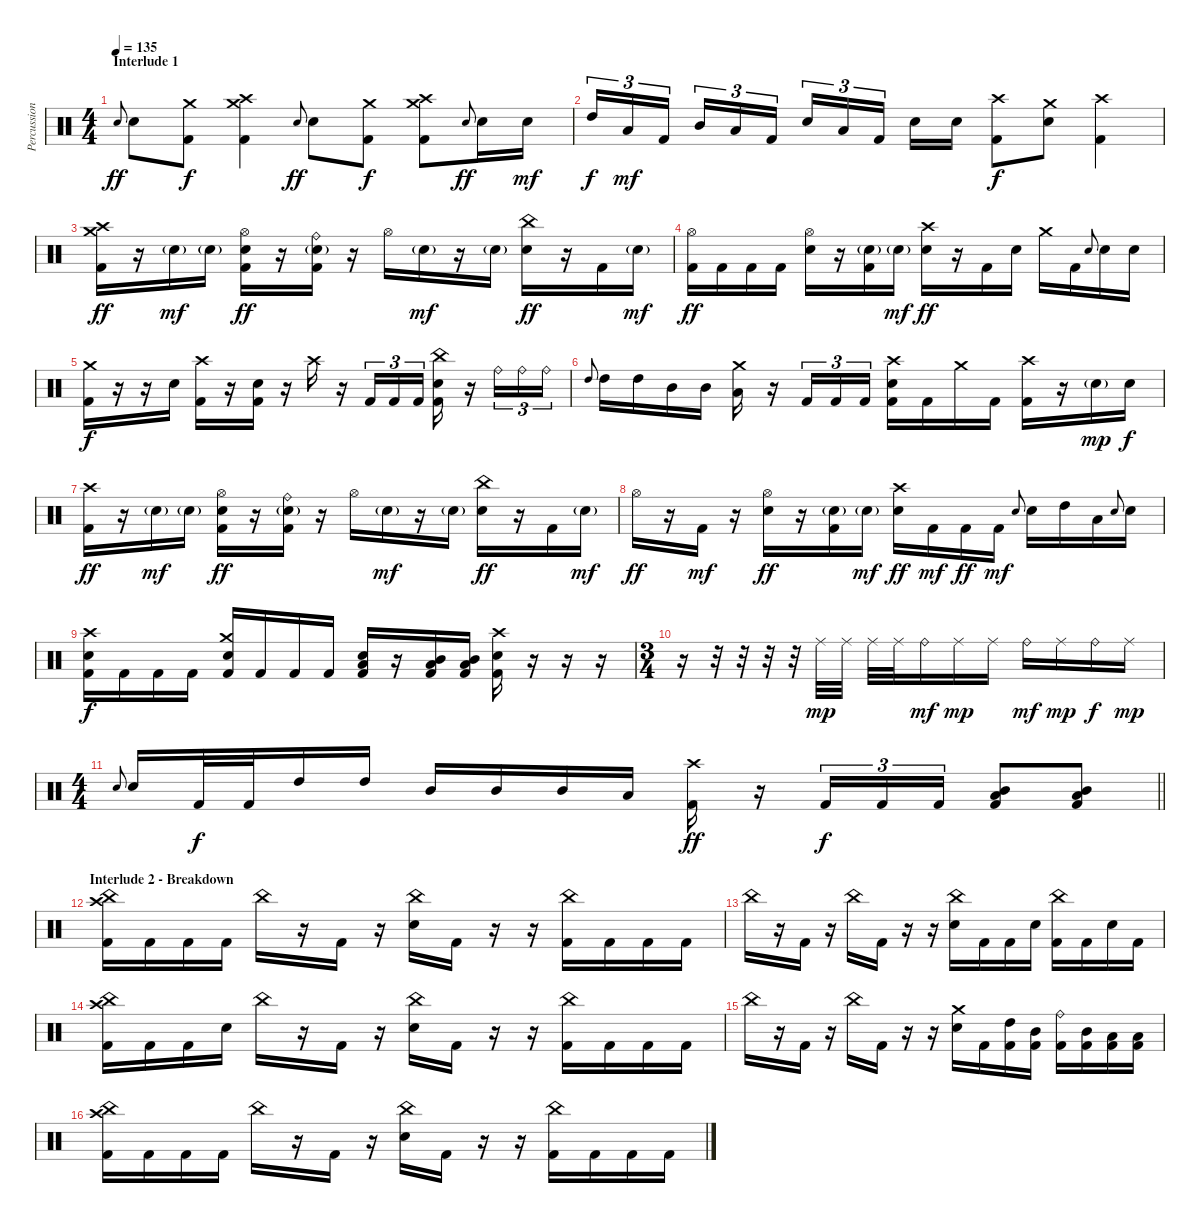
\track ("Percussion" "Percussion") {instrument percussion}
\staff {score}
\articulation defaults
\ts (4 4)
\section ("" "Interlude 1")
\tempo 135
\clef neutral
\ks c "Electric Snare (hit)".8{gr onbeat dy ff} "Electric Snare (hit)".8
("Crash medium (hit)" "Kick (hit) 2").8{dy f} ("Crash high (hit)" "Crash medium (hit)" "Kick (hit) 2").4 "Electric Snare (hit)".8{gr onbeat dy ff} "Electric Snare (hit)".8 ("Crash medium (hit)" "Kick (hit) 2").8{dy f} ("Crash high (hit)" "Crash medium (hit)" "Kick (hit) 2").8 "Electric Snare (hit)".8{gr onbeat dy ff} "Electric Snare (hit)".16 "Electric Snare (hit)".16{dy mf} |
"High Tom (hit)".16{tu (3 2) dy f} "Low Tom (hit)".16{tu (3 2) dy mf} "Kick (hit) 2".16{tu (3 2) beam splitsecondary} "Mid Tom (hit)".16{tu (3 2)} "Low Tom (hit)".16{tu (3 2)} "Kick (hit) 2".16{tu (3 2)} "Electric Snare (hit)".16{tu (3 2)} "Low Tom (hit)".16{tu (3 2)} "Kick (hit) 2".16{tu (3 2) beam splitsecondary} "Electric Snare (hit)".16 "Electric Snare (hit)".16 ("Crash high (hit)" "Kick (hit) 2").8{dy f} ("Crash medium (hit)" "Electric Snare (hit)").8 ("Crash high (hit)" "Kick (hit) 2").4 |
("Crash high (hit)" "Crash medium (hit)" "Kick (hit) 2").16{dy ff} r.16 "Electric Snare (hit)"{g}.16{dy mf} "Electric Snare (hit)"{g}.16 ("Hi-Hat (open)" "Electric Snare (hit)" "Kick (hit) 2").16{dy ff} r.16 ("Ride (bell)" "Electric Snare (hit)"{g} "Kick (hit) 2").16 r.16 "Hi-Hat (open)".16 "Electric Snare (hit)"{g}.16{dy mf} r.16 "Electric Snare (hit)"{g}.16 ("China (hit)" "Electric Snare (hit)").16{dy ff} r.16 "Kick (hit) 2".16 "Electric Snare (hit)"{g}.16{dy mf} |
("Hi-Hat (open)" "Kick (hit) 2").16{dy ff} "Kick (hit) 2".16 "Kick (hit) 2".16 "Kick (hit) 2".16 ("Hi-Hat (open)" "Electric Snare (hit)").16 r.16 ("Electric Snare (hit)"{g} "Kick (hit) 2").16 "Electric Snare (hit)"{g}.16{dy mf} ("Crash high (hit)" "Electric Snare (hit)").16{dy ff} r.16 "Kick (hit) 2".16 "Electric Snare (hit)".16 "Crash medium (hit)".16 "Kick (hit) 2".16 "Electric Snare (hit)".8{gr onbeat} "Electric Snare (hit)".16 "Electric Snare (hit)".16 |
("Crash medium (hit)" "Kick (hit) 2").16{dy f} r.16 r.16 "Electric Snare (hit)".16 ("Crash high (hit)" "Kick (hit) 2").16 r.16 ("Electric Snare (hit)" "Kick (hit) 2").16 r.16 "Crash high (hit)".16 r.16 "Kick (hit) 2".16{tu (3 2)} "Kick (hit) 2".16{tu (3 2)} "Kick (hit) 2".16{tu (3 2)} ("China (hit)" "Electric Snare (hit)" "Kick (hit) 2").16 r.16 "Ride (bell)".16{tu (3 2)} "Ride (bell)".16{tu (3 2)} "Ride (bell)".16{tu (3 2)} |
"High Tom (hit)".8{gr onbeat} "High Tom (hit)".16 "High Tom (hit)".16 "Mid Tom (hit)".16 "Mid Tom (hit)".16 ("Crash medium (hit)" "Low Tom (hit)").16 r.16 "Kick (hit) 2".16{tu (3 2)} "Kick (hit) 2".16{tu (3 2)} "Kick (hit) 2".16{tu (3 2)} ("Crash high (hit)" "Electric Snare (hit)" "Kick (hit) 2").16 "Kick (hit) 2".16 "Crash medium (hit)".16 "Kick (hit) 2".16 ("Crash high (hit)" "Kick (hit) 2").16 r.16 "Electric Snare (hit)"{g}.16{dy mp} "Electric Snare (hit)".16{dy f} |
("Crash high (hit)" "Kick (hit) 2").16{dy ff} r.16 "Electric Snare (hit)"{g}.16{dy mf} "Electric Snare (hit)"{g}.16 ("Hi-Hat (open)" "Electric Snare (hit)" "Kick (hit) 2").16{dy ff} r.16 ("Ride (bell)" "Electric Snare (hit)"{g} "Kick (hit) 2").16 r.16 "Hi-Hat (open)".16 "Electric Snare (hit)"{g}.16{dy mf} r.16 "Electric Snare (hit)"{g}.16 ("China (hit)" "Electric Snare (hit)").16{dy ff} r.16 "Kick (hit) 2".16 "Electric Snare (hit)"{g}.16{dy mf} |
"Hi-Hat (open)".16{dy ff} r.16 "Kick (hit) 2".16{dy mf} r.16 ("Hi-Hat (open)" "Electric Snare (hit)").16{dy ff} r.16 ("Electric Snare (hit)"{g} "Kick (hit) 2").16 "Electric Snare (hit)"{g}.16{dy mf} ("Crash high (hit)" "Electric Snare (hit)").16{dy ff} "Kick (hit) 2".16{dy mf} "Kick (hit) 2".16{dy ff} "Kick (hit) 2".16{dy mf} "Electric Snare (hit)".8{gr onbeat} "Electric Snare (hit)".16 "High Tom (hit)".16 "Low Tom (hit)".16 "Electric Snare (hit)".8{gr onbeat} "Electric Snare (hit)".16 |
("Crash high (hit)" "Electric Snare (hit)" "Kick (hit) 2").16{dy f} "Kick (hit) 2".16 "Kick (hit) 2".16 "Kick (hit) 2".16 ("Crash medium (hit)" "Electric Snare (hit)" "Kick (hit) 2").16 "Kick (hit) 2".16 "Kick (hit) 2".16 "Kick (hit) 2".16 ("Electric Snare (hit)" "Low Tom (hit)" "Kick (hit) 2").16 r.16 ("Mid Tom (hit)" "Low Tom (hit)" "Kick (hit) 2").16 ("Mid Tom (hit)" "Low Tom (hit)" "Kick (hit) 2").16 ("Crash high (hit)" "Electric Snare (hit)" "Kick (hit) 2").16 r.16 r.16 r.16 |
\ts (3 4)
r.16 r.32 r.32 r.32 r.32 "Ride (middle)".32{dy mp} "Ride (middle)".32 "Ride (middle)".32 "Ride (middle)".32 "Ride (bell)".16{dy mf} "Ride (middle)".16{dy mp} "Ride (middle)".16 "Ride (bell)".16{dy mf} "Ride (middle)".16{dy mp} "Ride (bell)".16{dy f} "Ride (middle)".16{dy mp} |
\ts (4 4)
\barLineRight lightlight "Electric Snare (hit)".8{gr onbeat} "Electric Snare (hit)".16 "Kick (hit) 2".32{dy f} "Kick (hit) 2".32 "High Tom (hit)".16 "High Tom (hit)".16 "Mid Tom (hit)".16 "Mid Tom (hit)".16 "Mid Tom (hit)".16 "Low Tom (hit)".16
("Crash high (hit)" "Kick (hit) 2").16{dy ff} r.16 "Kick (hit) 2".16{tu (3 2) dy f} "Kick (hit) 2".16{tu (3 2)} "Kick (hit) 2".16{tu (3 2)} ("Mid Tom (hit)" "Low Tom (hit)" "Kick (hit) 2").8 ("Mid Tom (hit)" "Low Tom (hit)" "Kick (hit) 2").8 |
\section ("" "Interlude 2 - Breakdown")
("Crash high (hit)" "China (hit)" "Kick (hit) 2").16 "Kick (hit) 2".16 "Kick (hit) 2".16 "Kick (hit) 2".16 "China (hit)".16 r.16 "Kick (hit) 2".16 r.16 ("China (hit)" "Electric Snare (hit)").16 "Kick (hit) 2".16 r.16 r.16 ("China (hit)" "Kick (hit) 2").16 "Kick (hit) 2".16 "Kick (hit) 2".16 "Kick (hit) 2".16 |
"China (hit)".16 r.16 "Kick (hit) 2".16 r.16 "China (hit)".16 "Kick (hit) 2".16 r.16 r.16 ("China (hit)" "Electric Snare (hit)").16 "Kick (hit) 2".16 "Kick (hit) 2".16 "Electric Snare (hit)".16 ("China (hit)" "Kick (hit) 2").16 "Kick (hit) 2".16 "Electric Snare (hit)".16 "Kick (hit) 2".16 |
("Crash high (hit)" "China (hit)" "Kick (hit) 2").16 "Kick (hit) 2".16 "Kick (hit) 2".16 "Electric Snare (hit)".16 "China (hit)".16 r.16 "Kick (hit) 2".16 r.16 ("China (hit)" "Electric Snare (hit)").16 "Kick (hit) 2".16 r.16 r.16 ("China (hit)" "Kick (hit) 2").16 "Kick (hit) 2".16 "Kick (hit) 2".16 "Kick (hit) 2".16 |
"China (hit)".16 r.16 "Kick (hit) 2".16 r.16 "China (hit)".16 "Kick (hit) 2".16 r.16 r.16 ("Crash medium (hit)" "Electric Snare (hit)").16 "Kick (hit) 2".16 ("High Tom (hit)" "Kick (hit) 2").16 ("Mid Tom (hit)" "Kick (hit) 2").16 ("Ride (bell)" "Kick (hit) 2").16 ("Mid Tom (hit)" "Kick (hit) 2").16 ("Low Tom (hit)" "Kick (hit) 2").16 ("Low Tom (hit)" "Kick (hit) 2").16 |
("Crash high (hit)" "China (hit)" "Kick (hit) 2").16 "Kick (hit) 2".16 "Kick (hit) 2".16 "Kick (hit) 2".16 "China (hit)".16 r.16 "Kick (hit) 2".16 r.16 ("China (hit)" "Electric Snare (hit)").16 "Kick (hit) 2".16 r.16 r.16 ("China (hit)" "Kick (hit) 2").16 "Kick (hit) 2".16 "Kick (hit) 2".16 "Kick (hit) 2".16
